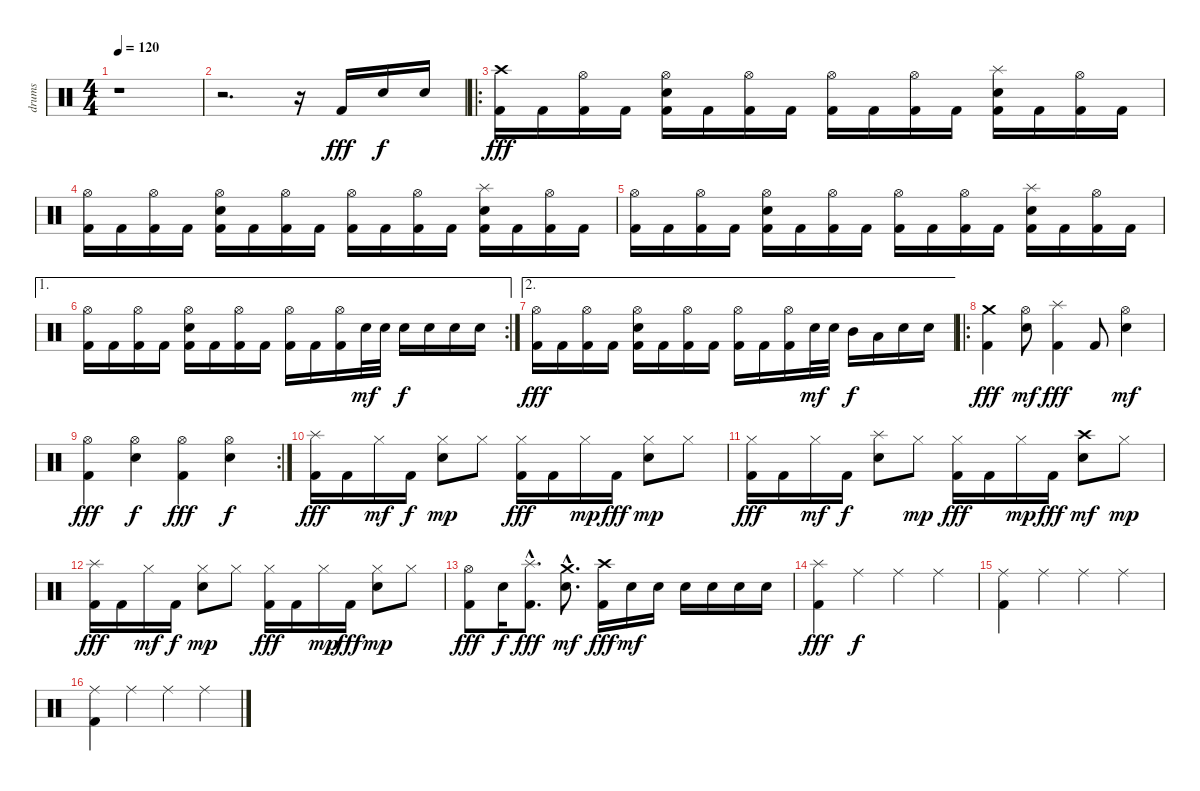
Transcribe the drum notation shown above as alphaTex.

\track ("drums" "drums") {instrument percussion}
\staff {score}
\articulation defaults
\ts (4 4)
\tempo 120
\clef neutral
\ks c
r.1{dy fff} |
\section ("" "")
r.2{d} r.16 "Kick (hit) 2".16 "Electric Snare (hit)".16{dy f} "Electric Snare (hit)".16 |
\ro
("Crash high (hit)" "Kick (hit) 2").16{dy fff} "Kick (hit) 2".16 ("Hi-Hat (open)" "Kick (hit) 2").16 "Kick (hit) 2".16 ("Hi-Hat (open)" "Electric Snare (hit)" "Kick (hit) 2").16 "Kick (hit) 2".16 ("Hi-Hat (open)" "Kick (hit) 2").16 "Kick (hit) 2".16 ("Hi-Hat (open)" "Kick (hit) 2").16 "Kick (hit) 2".16 ("Hi-Hat (open)" "Kick (hit) 2").16 "Kick (hit) 2".16 ("Splash (hit)" "Electric Snare (hit)" "Kick (hit) 2").16 "Kick (hit) 2".16 ("Hi-Hat (open)" "Kick (hit) 2").16 "Kick (hit) 2".16 |
("Hi-Hat (open)" "Kick (hit) 2").16 "Kick (hit) 2".16 ("Hi-Hat (open)" "Kick (hit) 2").16 "Kick (hit) 2".16 ("Hi-Hat (open)" "Electric Snare (hit)" "Kick (hit) 2").16 "Kick (hit) 2".16 ("Hi-Hat (open)" "Kick (hit) 2").16 "Kick (hit) 2".16 ("Hi-Hat (open)" "Kick (hit) 2").16 "Kick (hit) 2".16 ("Hi-Hat (open)" "Kick (hit) 2").16 "Kick (hit) 2".16 ("Splash (hit)" "Electric Snare (hit)" "Kick (hit) 2").16 "Kick (hit) 2".16 ("Hi-Hat (open)" "Kick (hit) 2").16 "Kick (hit) 2".16 |
("Hi-Hat (open)" "Kick (hit) 2").16 "Kick (hit) 2".16 ("Hi-Hat (open)" "Kick (hit) 2").16 "Kick (hit) 2".16 ("Hi-Hat (open)" "Electric Snare (hit)" "Kick (hit) 2").16 "Kick (hit) 2".16 ("Hi-Hat (open)" "Kick (hit) 2").16 "Kick (hit) 2".16 ("Hi-Hat (open)" "Kick (hit) 2").16 "Kick (hit) 2".16 ("Hi-Hat (open)" "Kick (hit) 2").16 "Kick (hit) 2".16 ("Splash (hit)" "Electric Snare (hit)" "Kick (hit) 2").16 "Kick (hit) 2".16 ("Hi-Hat (open)" "Kick (hit) 2").16 "Kick (hit) 2".16 |
\ae 1
\rc 2
("Hi-Hat (open)" "Kick (hit) 2").16 "Kick (hit) 2".16 ("Hi-Hat (open)" "Kick (hit) 2").16 "Kick (hit) 2".16 ("Hi-Hat (open)" "Electric Snare (hit)" "Kick (hit) 2").16 "Kick (hit) 2".16 ("Hi-Hat (open)" "Kick (hit) 2").16 "Kick (hit) 2".16 ("Hi-Hat (open)" "Kick (hit) 2").16 "Kick (hit) 2".16 ("Hi-Hat (open)" "Kick (hit) 2").16 "Electric Snare (hit)".32{dy mf} "Electric Snare (hit)".32 "Electric Snare (hit)".16{dy f} "Electric Snare (hit)".16 "Electric Snare (hit)".16 "Electric Snare (hit)".16 |
\ae 2
("Hi-Hat (open)" "Kick (hit) 2").16{dy fff} "Kick (hit) 2".16 ("Hi-Hat (open)" "Kick (hit) 2").16 "Kick (hit) 2".16 ("Hi-Hat (open)" "Electric Snare (hit)" "Kick (hit) 2").16 "Kick (hit) 2".16 ("Hi-Hat (open)" "Kick (hit) 2").16 "Kick (hit) 2".16 ("Hi-Hat (open)" "Kick (hit) 2").16 "Kick (hit) 2".16 ("Hi-Hat (open)" "Kick (hit) 2").16 "Electric Snare (hit)".32{dy mf} "Electric Snare (hit)".32 "Mid Tom (hit)".16{dy f} "Low Tom (hit)".16 "Electric Snare (hit)".16 "Electric Snare (hit)".16 |
\ro
("Crash medium (hit)" "Kick (hit) 2").4{dy fff} ("Hi-Hat (open)" "Electric Snare (hit)").8{dy mf} ("Splash (hit)" "Kick (hit) 2").4{dy fff} "Kick (hit) 2".8 ("Hi-Hat (open)" "Electric Snare (hit)").4{dy mf} |
\rc 2
("Hi-Hat (open)" "Kick (hit) 2").4{dy fff} ("Hi-Hat (open)" "Electric Snare (hit)").4{dy f} ("Hi-Hat (open)" "Kick (hit) 2").4{dy fff} ("Hi-Hat (open)" "Electric Snare (hit)").4{dy f} |
("Splash (hit)" "Kick (hit) 2").16{dy fff} "Kick (hit) 2".16 "Hi-Hat (closed)".16{dy mf} "Kick (hit) 2".16{dy f} ("Hi-Hat (closed)" "Electric Snare (hit)").8{dy mp} "Hi-Hat (closed)".8 ("Hi-Hat (closed)" "Kick (hit) 2").16{dy fff} "Kick (hit) 2".16 "Hi-Hat (closed)".16{dy mp} "Kick (hit) 2".16{dy fff} ("Hi-Hat (closed)" "Electric Snare (hit)").8{dy mp} "Hi-Hat (closed)".8 |
("Hi-Hat (closed)" "Kick (hit) 2").16{dy fff} "Kick (hit) 2".16 "Hi-Hat (closed)".16{dy mf} "Kick (hit) 2".16{dy f} ("Splash (hit)" "Electric Snare (hit)").8 "Hi-Hat (closed)".8{dy mp} ("Hi-Hat (closed)" "Kick (hit) 2").16{dy fff} "Kick (hit) 2".16 "Hi-Hat (closed)".16{dy mp} "Kick (hit) 2".16{dy fff} ("Crash high (hit)" "Electric Snare (hit)").8{dy mf} "Hi-Hat (closed)".8{dy mp} |
("Splash (hit)" "Kick (hit) 2").16{dy fff} "Kick (hit) 2".16 "Hi-Hat (closed)".16{dy mf} "Kick (hit) 2".16{dy f} ("Hi-Hat (closed)" "Electric Snare (hit)").8{dy mp} "Hi-Hat (closed)".8 ("Hi-Hat (closed)" "Kick (hit) 2").16{dy fff} "Kick (hit) 2".16 "Hi-Hat (closed)".16{dy mp} "Kick (hit) 2".16{dy fff} ("Hi-Hat (closed)" "Electric Snare (hit)").8{dy mp} "Hi-Hat (closed)".8 |
("Hi-Hat (open)" "Kick (hit) 2").8{dy fff} "Electric Snare (hit)".16{dy f} ("Splash (hit)"{hac} "Kick (hit) 2"{hac}).8{d dy fff} ("Crash medium (hit)"{hac} "Electric Snare (hit)"{hac}).8{d dy mf} ("Crash high (hit)" "Kick (hit) 2").16{dy fff} "Electric Snare (hit)".16{dy mf} "Electric Snare (hit)".16 "Electric Snare (hit)".16 "Electric Snare (hit)".16 "Electric Snare (hit)".16 "Electric Snare (hit)".16 |
("Splash (hit)" "Kick (hit) 2").4{dy fff} "Ride (middle)".4{dy f} "Ride (middle)".4 "Ride (middle)".4 |
("Ride (middle)" "Kick (hit) 2").4 "Ride (middle)".4 "Ride (middle)".4 "Ride (middle)".4 |
("Ride (middle)" "Kick (hit) 2").4 "Ride (middle)".4 "Ride (middle)".4 "Ride (middle)".4
